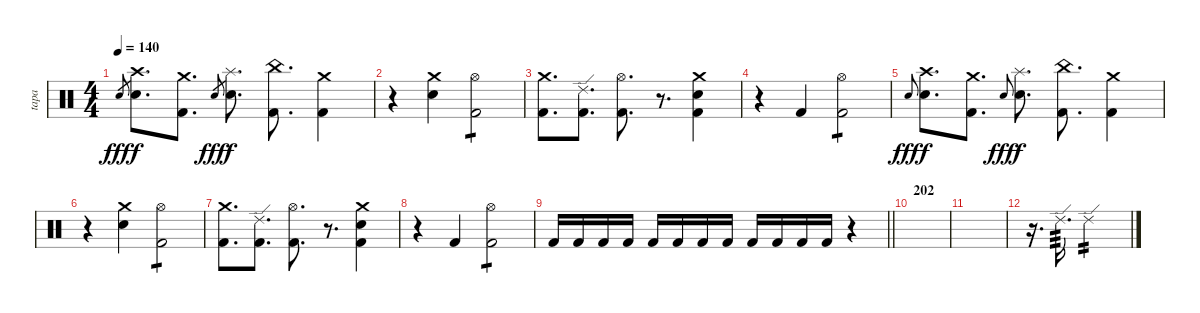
\track ("tapa" "tapa") {instrument percussion}
\staff {score}
\articulation defaults
\ts (4 4)
\tempo 140
\clef neutral
\ks c "Snare (hit) 2".8{gr dy fff}
("Snare (hit) 2" "Crash high (hit)").8{d dy f} ("Kick (hit) 2" "Crash medium (hit)").8{d} "Snare (hit) 2".8{gr dy fff} ("Snare (hit) 2" "Splash (hit)").8{d dy f} ("Kick (hit) 2" "China (hit)").8{d} ("Kick (hit) 2" "Crash medium (hit)").4 |
r.4 ("Snare (hit) 2" "Crash medium (hit)").4 ("Kick (hit) 2" "Hi-Hat (open)").2{tp 1} |
("Kick (hit) 2" "Crash medium (hit)").8{d} ("Kick (hit) 2" "Ride (edge) 2").8{d} ("Kick (hit) 2" "Hi-Hat (open)").8{d} r.8{d} ("Snare (hit) 2" "Crash medium (hit)" "Kick (hit) 2").4 |
r.4 "Kick (hit) 2".4 ("Kick (hit) 2" "Hi-Hat (open)").2{tp 1} |
"Snare (hit) 2".8{gr onbeat dy fff} ("Snare (hit) 2" "Crash high (hit)").8{d dy f} ("Kick (hit) 2" "Crash medium (hit)").8{d} "Snare (hit) 2".8{gr onbeat dy fff} ("Snare (hit) 2" "Splash (hit)").8{d dy f} ("Kick (hit) 2" "China (hit)").8{d} ("Kick (hit) 2" "Crash medium (hit)").4 |
r.4 ("Snare (hit) 2" "Crash medium (hit)").4 ("Kick (hit) 2" "Hi-Hat (open)").2{tp 1} |
("Kick (hit) 2" "Crash medium (hit)").8{d} ("Kick (hit) 2" "Ride (edge) 2").8{d} ("Kick (hit) 2" "Hi-Hat (open)").8{d} r.8{d} ("Snare (hit) 2" "Crash medium (hit)" "Kick (hit) 2").4 |
r.4 "Kick (hit) 2".4 ("Kick (hit) 2" "Hi-Hat (open)").2{tp 1} |
\barLineRight lightlight "Kick (hit) 2".16 "Kick (hit) 2".16 "Kick (hit) 2".16 "Kick (hit) 2".16 "Kick (hit) 2".16 "Kick (hit) 2".16 "Kick (hit) 2".16 "Kick (hit) 2".16 "Kick (hit) 2".16 "Kick (hit) 2".16 "Kick (hit) 2".16 "Kick (hit) 2".16
r.4 |
\section ("" "202")
|
|
r.16{d} "Ride (edge) 2".16{d tp 3} "Ride (edge) 2".2{tp 2}
